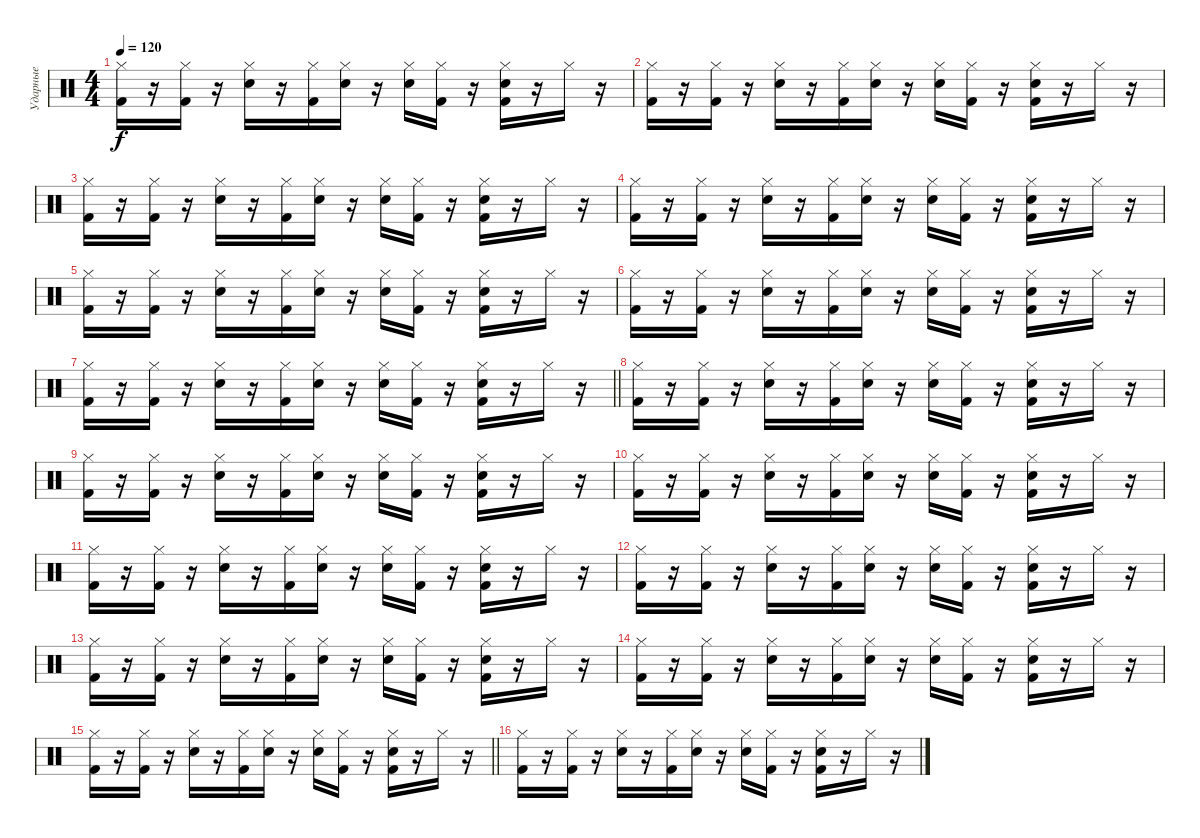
\track ("Ударные" "Ударные") {instrument percussion}
\staff {score}
\articulation defaults
\ts (4 4)
\tempo 120
\clef neutral
\ks c
("Hi-Hat (closed)" "Kick (hit) 2").16{dy f} r.16 ("Hi-Hat (closed)" "Kick (hit) 2").16 r.16 ("Hi-Hat (closed)" "Electric Snare (hit)").16 r.16 ("Hi-Hat (closed)" "Kick (hit) 2").16 ("Hi-Hat (closed)" "Electric Snare (hit)").16 r.16 ("Hi-Hat (closed)" "Electric Snare (hit)").16 ("Hi-Hat (closed)" "Kick (hit) 2").16 r.16 ("Hi-Hat (closed)" "Electric Snare (hit)" "Kick (hit) 2").16 r.16 "Hi-Hat (closed)".16 r.16 |
("Hi-Hat (closed)" "Kick (hit) 2").16 r.16 ("Hi-Hat (closed)" "Kick (hit) 2").16 r.16 ("Hi-Hat (closed)" "Electric Snare (hit)").16 r.16 ("Hi-Hat (closed)" "Kick (hit) 2").16 ("Hi-Hat (closed)" "Electric Snare (hit)").16 r.16 ("Hi-Hat (closed)" "Electric Snare (hit)").16 ("Hi-Hat (closed)" "Kick (hit) 2").16 r.16 ("Hi-Hat (closed)" "Electric Snare (hit)" "Kick (hit) 2").16 r.16 "Hi-Hat (closed)".16 r.16 |
("Hi-Hat (closed)" "Kick (hit) 2").16 r.16 ("Hi-Hat (closed)" "Kick (hit) 2").16 r.16 ("Hi-Hat (closed)" "Electric Snare (hit)").16 r.16 ("Hi-Hat (closed)" "Kick (hit) 2").16 ("Hi-Hat (closed)" "Electric Snare (hit)").16 r.16 ("Hi-Hat (closed)" "Electric Snare (hit)").16 ("Hi-Hat (closed)" "Kick (hit) 2").16 r.16 ("Hi-Hat (closed)" "Electric Snare (hit)" "Kick (hit) 2").16 r.16 "Hi-Hat (closed)".16 r.16 |
("Hi-Hat (closed)" "Kick (hit) 2").16 r.16 ("Hi-Hat (closed)" "Kick (hit) 2").16 r.16 ("Hi-Hat (closed)" "Electric Snare (hit)").16 r.16 ("Hi-Hat (closed)" "Kick (hit) 2").16 ("Hi-Hat (closed)" "Electric Snare (hit)").16 r.16 ("Hi-Hat (closed)" "Electric Snare (hit)").16 ("Hi-Hat (closed)" "Kick (hit) 2").16 r.16 ("Hi-Hat (closed)" "Electric Snare (hit)" "Kick (hit) 2").16 r.16 "Hi-Hat (closed)".16 r.16 |
("Hi-Hat (closed)" "Kick (hit) 2").16 r.16 ("Hi-Hat (closed)" "Kick (hit) 2").16 r.16 ("Hi-Hat (closed)" "Electric Snare (hit)").16 r.16 ("Hi-Hat (closed)" "Kick (hit) 2").16 ("Hi-Hat (closed)" "Electric Snare (hit)").16 r.16 ("Hi-Hat (closed)" "Electric Snare (hit)").16 ("Hi-Hat (closed)" "Kick (hit) 2").16 r.16 ("Hi-Hat (closed)" "Electric Snare (hit)" "Kick (hit) 2").16 r.16 "Hi-Hat (closed)".16 r.16 |
("Hi-Hat (closed)" "Kick (hit) 2").16 r.16 ("Hi-Hat (closed)" "Kick (hit) 2").16 r.16 ("Hi-Hat (closed)" "Electric Snare (hit)").16 r.16 ("Hi-Hat (closed)" "Kick (hit) 2").16 ("Hi-Hat (closed)" "Electric Snare (hit)").16 r.16 ("Hi-Hat (closed)" "Electric Snare (hit)").16 ("Hi-Hat (closed)" "Kick (hit) 2").16 r.16 ("Hi-Hat (closed)" "Electric Snare (hit)" "Kick (hit) 2").16 r.16 "Hi-Hat (closed)".16 r.16 |
\barLineRight lightlight
("Hi-Hat (closed)" "Kick (hit) 2").16 r.16 ("Hi-Hat (closed)" "Kick (hit) 2").16 r.16 ("Hi-Hat (closed)" "Electric Snare (hit)").16 r.16 ("Hi-Hat (closed)" "Kick (hit) 2").16 ("Hi-Hat (closed)" "Electric Snare (hit)").16 r.16 ("Hi-Hat (closed)" "Electric Snare (hit)").16 ("Hi-Hat (closed)" "Kick (hit) 2").16 r.16 ("Hi-Hat (closed)" "Electric Snare (hit)" "Kick (hit) 2").16 r.16 "Hi-Hat (closed)".16 r.16 |
("Hi-Hat (closed)" "Kick (hit) 2").16 r.16 ("Hi-Hat (closed)" "Kick (hit) 2").16 r.16 ("Hi-Hat (closed)" "Electric Snare (hit)").16 r.16 ("Hi-Hat (closed)" "Kick (hit) 2").16 ("Hi-Hat (closed)" "Electric Snare (hit)").16 r.16 ("Hi-Hat (closed)" "Electric Snare (hit)").16 ("Hi-Hat (closed)" "Kick (hit) 2").16 r.16 ("Hi-Hat (closed)" "Electric Snare (hit)" "Kick (hit) 2").16 r.16 "Hi-Hat (closed)".16 r.16 |
("Hi-Hat (closed)" "Kick (hit) 2").16 r.16 ("Hi-Hat (closed)" "Kick (hit) 2").16 r.16 ("Hi-Hat (closed)" "Electric Snare (hit)").16 r.16 ("Hi-Hat (closed)" "Kick (hit) 2").16 ("Hi-Hat (closed)" "Electric Snare (hit)").16 r.16 ("Hi-Hat (closed)" "Electric Snare (hit)").16 ("Hi-Hat (closed)" "Kick (hit) 2").16 r.16 ("Hi-Hat (closed)" "Electric Snare (hit)" "Kick (hit) 2").16 r.16 "Hi-Hat (closed)".16 r.16 |
("Hi-Hat (closed)" "Kick (hit) 2").16 r.16 ("Hi-Hat (closed)" "Kick (hit) 2").16 r.16 ("Hi-Hat (closed)" "Electric Snare (hit)").16 r.16 ("Hi-Hat (closed)" "Kick (hit) 2").16 ("Hi-Hat (closed)" "Electric Snare (hit)").16 r.16 ("Hi-Hat (closed)" "Electric Snare (hit)").16 ("Hi-Hat (closed)" "Kick (hit) 2").16 r.16 ("Hi-Hat (closed)" "Electric Snare (hit)" "Kick (hit) 2").16 r.16 "Hi-Hat (closed)".16 r.16 |
("Hi-Hat (closed)" "Kick (hit) 2").16 r.16 ("Hi-Hat (closed)" "Kick (hit) 2").16 r.16 ("Hi-Hat (closed)" "Electric Snare (hit)").16 r.16 ("Hi-Hat (closed)" "Kick (hit) 2").16 ("Hi-Hat (closed)" "Electric Snare (hit)").16 r.16 ("Hi-Hat (closed)" "Electric Snare (hit)").16 ("Hi-Hat (closed)" "Kick (hit) 2").16 r.16 ("Hi-Hat (closed)" "Electric Snare (hit)" "Kick (hit) 2").16 r.16 "Hi-Hat (closed)".16 r.16 |
("Hi-Hat (closed)" "Kick (hit) 2").16 r.16 ("Hi-Hat (closed)" "Kick (hit) 2").16 r.16 ("Hi-Hat (closed)" "Electric Snare (hit)").16 r.16 ("Hi-Hat (closed)" "Kick (hit) 2").16 ("Hi-Hat (closed)" "Electric Snare (hit)").16 r.16 ("Hi-Hat (closed)" "Electric Snare (hit)").16 ("Hi-Hat (closed)" "Kick (hit) 2").16 r.16 ("Hi-Hat (closed)" "Electric Snare (hit)" "Kick (hit) 2").16 r.16 "Hi-Hat (closed)".16 r.16 |
("Hi-Hat (closed)" "Kick (hit) 2").16 r.16 ("Hi-Hat (closed)" "Kick (hit) 2").16 r.16 ("Hi-Hat (closed)" "Electric Snare (hit)").16 r.16 ("Hi-Hat (closed)" "Kick (hit) 2").16 ("Hi-Hat (closed)" "Electric Snare (hit)").16 r.16 ("Hi-Hat (closed)" "Electric Snare (hit)").16 ("Hi-Hat (closed)" "Kick (hit) 2").16 r.16 ("Hi-Hat (closed)" "Electric Snare (hit)" "Kick (hit) 2").16 r.16 "Hi-Hat (closed)".16 r.16 |
("Hi-Hat (closed)" "Kick (hit) 2").16 r.16 ("Hi-Hat (closed)" "Kick (hit) 2").16 r.16 ("Hi-Hat (closed)" "Electric Snare (hit)").16 r.16 ("Hi-Hat (closed)" "Kick (hit) 2").16 ("Hi-Hat (closed)" "Electric Snare (hit)").16 r.16 ("Hi-Hat (closed)" "Electric Snare (hit)").16 ("Hi-Hat (closed)" "Kick (hit) 2").16 r.16 ("Hi-Hat (closed)" "Electric Snare (hit)" "Kick (hit) 2").16 r.16 "Hi-Hat (closed)".16 r.16 |
\barLineRight lightlight
("Hi-Hat (closed)" "Kick (hit) 2").16 r.16 ("Hi-Hat (closed)" "Kick (hit) 2").16 r.16 ("Hi-Hat (closed)" "Electric Snare (hit)").16 r.16 ("Hi-Hat (closed)" "Kick (hit) 2").16 ("Hi-Hat (closed)" "Electric Snare (hit)").16 r.16 ("Hi-Hat (closed)" "Electric Snare (hit)").16 ("Hi-Hat (closed)" "Kick (hit) 2").16 r.16 ("Hi-Hat (closed)" "Electric Snare (hit)" "Kick (hit) 2").16 r.16 "Hi-Hat (closed)".16 r.16 |
("Hi-Hat (closed)" "Kick (hit) 2").16 r.16 ("Hi-Hat (closed)" "Kick (hit) 2").16 r.16 ("Hi-Hat (closed)" "Electric Snare (hit)").16 r.16 ("Hi-Hat (closed)" "Kick (hit) 2").16 ("Hi-Hat (closed)" "Electric Snare (hit)").16 r.16 ("Hi-Hat (closed)" "Electric Snare (hit)").16 ("Hi-Hat (closed)" "Kick (hit) 2").16 r.16 ("Hi-Hat (closed)" "Electric Snare (hit)" "Kick (hit) 2").16 r.16 "Hi-Hat (closed)".16 r.16
